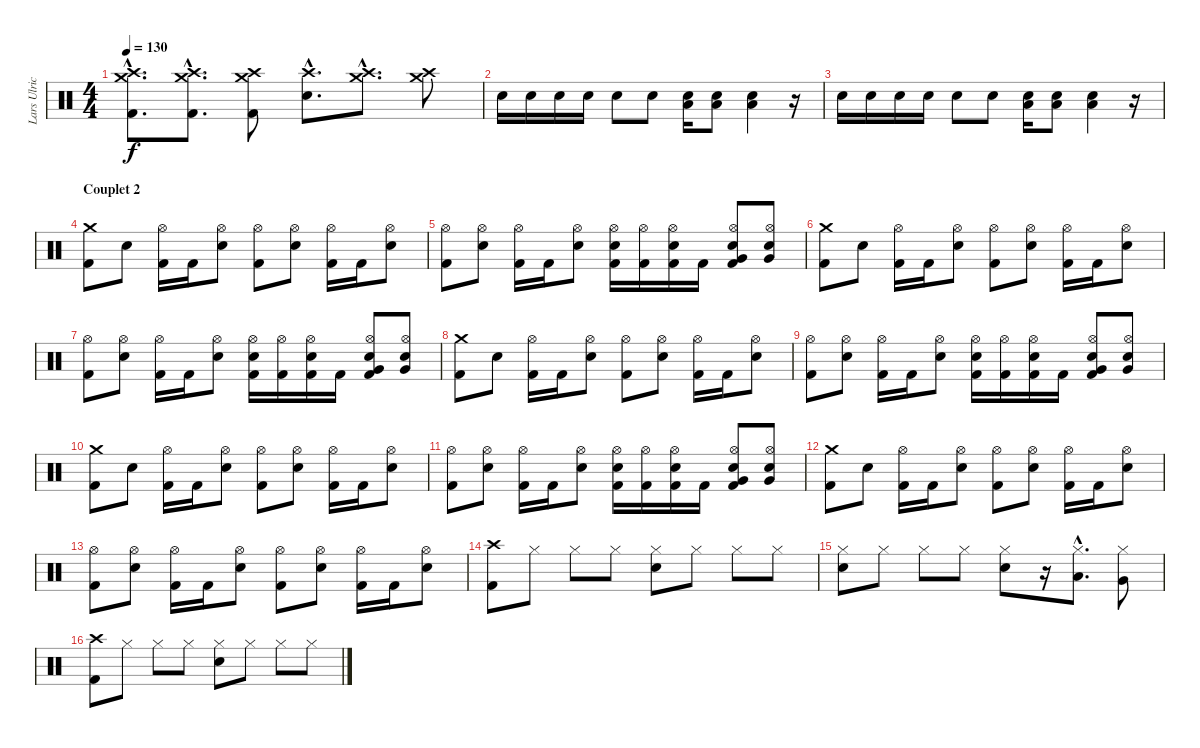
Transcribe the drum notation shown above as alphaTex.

\track ("Lars Ulrich" "Lars Ulric") {instrument percussion}
\staff {score}
\articulation defaults
\ts (4 4)
\tempo 130
\clef neutral
\ks c
("Crash medium (hit)"{hac} "Crash high (hit)"{hac} "Kick (hit) 2"{hac}).8{d dy f} ("Crash medium (hit)"{hac} "Crash high (hit)"{hac} "Kick (hit) 2"{hac}).8{d} ("Crash medium (hit)" "Crash high (hit)" "Kick (hit) 2").8 ("Crash high (hit)"{hac} "Electric Snare (hit)"{hac}).8{d} ("Crash medium (hit)"{hac} "Crash high (hit)"{hac}).8{d} ("Crash medium (hit)" "Crash high (hit)").8 |
"Electric Snare (hit)".16 "Electric Snare (hit)".16 "Electric Snare (hit)".16 "Electric Snare (hit)".16 "Electric Snare (hit)".8 "Electric Snare (hit)".8 ("Electric Snare (hit)" "Low Floor Tom (hit)").16 ("Electric Snare (hit)" "Low Floor Tom (hit)").8 ("Electric Snare (hit)" "Low Floor Tom (hit)").4 r.16 |
"Electric Snare (hit)".16 "Electric Snare (hit)".16 "Electric Snare (hit)".16 "Electric Snare (hit)".16 "Electric Snare (hit)".8 "Electric Snare (hit)".8 ("Electric Snare (hit)" "Low Floor Tom (hit)").16 ("Electric Snare (hit)" "Low Floor Tom (hit)").8 ("Electric Snare (hit)" "Low Floor Tom (hit)").4 r.16 |
\section ("" "Couplet 2")
("Crash medium (hit)" "Kick (hit) 2").8 "Electric Snare (hit)".8 ("Hi-Hat (open)" "Kick (hit) 2").16 "Kick (hit) 2".16 ("Hi-Hat (open)" "Electric Snare (hit)").8 ("Hi-Hat (open)" "Kick (hit) 2").8 ("Hi-Hat (open)" "Electric Snare (hit)").8 ("Hi-Hat (open)" "Kick (hit) 2").16 "Kick (hit) 2".16 ("Hi-Hat (open)" "Electric Snare (hit)").8 |
("Hi-Hat (open)" "Kick (hit) 2").8 ("Hi-Hat (open)" "Electric Snare (hit)").8 ("Hi-Hat (open)" "Kick (hit) 2").16 "Kick (hit) 2".16 ("Hi-Hat (open)" "Electric Snare (hit)").8 ("Hi-Hat (open)" "Electric Snare (hit)" "Kick (hit) 2").16 ("Hi-Hat (open)" "Kick (hit) 2").16 ("Hi-Hat (open)" "Electric Snare (hit)" "Kick (hit) 2").16 "Kick (hit) 2".16 ("Hi-Hat (open)" "Electric Snare (hit)" "Very Low Tom (hit)" "Kick (hit) 2").8 ("Hi-Hat (open)" "Electric Snare (hit)" "Very Low Tom (hit)").8 |
("Crash medium (hit)" "Kick (hit) 2").8 "Electric Snare (hit)".8 ("Hi-Hat (open)" "Kick (hit) 2").16 "Kick (hit) 2".16 ("Hi-Hat (open)" "Electric Snare (hit)").8 ("Hi-Hat (open)" "Kick (hit) 2").8 ("Hi-Hat (open)" "Electric Snare (hit)").8 ("Hi-Hat (open)" "Kick (hit) 2").16 "Kick (hit) 2".16 ("Hi-Hat (open)" "Electric Snare (hit)").8 |
("Hi-Hat (open)" "Kick (hit) 2").8 ("Hi-Hat (open)" "Electric Snare (hit)").8 ("Hi-Hat (open)" "Kick (hit) 2").16 "Kick (hit) 2".16 ("Hi-Hat (open)" "Electric Snare (hit)").8 ("Hi-Hat (open)" "Electric Snare (hit)" "Kick (hit) 2").16 ("Hi-Hat (open)" "Kick (hit) 2").16 ("Hi-Hat (open)" "Electric Snare (hit)" "Kick (hit) 2").16 "Kick (hit) 2".16 ("Hi-Hat (open)" "Electric Snare (hit)" "Very Low Tom (hit)" "Kick (hit) 2").8 ("Hi-Hat (open)" "Electric Snare (hit)" "Very Low Tom (hit)").8 |
("Crash medium (hit)" "Kick (hit) 2").8 "Electric Snare (hit)".8 ("Hi-Hat (open)" "Kick (hit) 2").16 "Kick (hit) 2".16 ("Hi-Hat (open)" "Electric Snare (hit)").8 ("Hi-Hat (open)" "Kick (hit) 2").8 ("Hi-Hat (open)" "Electric Snare (hit)").8 ("Hi-Hat (open)" "Kick (hit) 2").16 "Kick (hit) 2".16 ("Hi-Hat (open)" "Electric Snare (hit)").8 |
("Hi-Hat (open)" "Kick (hit) 2").8 ("Hi-Hat (open)" "Electric Snare (hit)").8 ("Hi-Hat (open)" "Kick (hit) 2").16 "Kick (hit) 2".16 ("Hi-Hat (open)" "Electric Snare (hit)").8 ("Hi-Hat (open)" "Electric Snare (hit)" "Kick (hit) 2").16 ("Hi-Hat (open)" "Kick (hit) 2").16 ("Hi-Hat (open)" "Electric Snare (hit)" "Kick (hit) 2").16 "Kick (hit) 2".16 ("Hi-Hat (open)" "Electric Snare (hit)" "Very Low Tom (hit)" "Kick (hit) 2").8 ("Hi-Hat (open)" "Electric Snare (hit)" "Very Low Tom (hit)").8 |
("Crash medium (hit)" "Kick (hit) 2").8 "Electric Snare (hit)".8 ("Hi-Hat (open)" "Kick (hit) 2").16 "Kick (hit) 2".16 ("Hi-Hat (open)" "Electric Snare (hit)").8 ("Hi-Hat (open)" "Kick (hit) 2").8 ("Hi-Hat (open)" "Electric Snare (hit)").8 ("Hi-Hat (open)" "Kick (hit) 2").16 "Kick (hit) 2".16 ("Hi-Hat (open)" "Electric Snare (hit)").8 |
("Hi-Hat (open)" "Kick (hit) 2").8 ("Hi-Hat (open)" "Electric Snare (hit)").8 ("Hi-Hat (open)" "Kick (hit) 2").16 "Kick (hit) 2".16 ("Hi-Hat (open)" "Electric Snare (hit)").8 ("Hi-Hat (open)" "Electric Snare (hit)" "Kick (hit) 2").16 ("Hi-Hat (open)" "Kick (hit) 2").16 ("Hi-Hat (open)" "Electric Snare (hit)" "Kick (hit) 2").16 "Kick (hit) 2".16 ("Hi-Hat (open)" "Electric Snare (hit)" "Very Low Tom (hit)" "Kick (hit) 2").8 ("Hi-Hat (open)" "Electric Snare (hit)" "Very Low Tom (hit)").8 |
("Crash medium (hit)" "Kick (hit) 2").8 "Electric Snare (hit)".8 ("Hi-Hat (open)" "Kick (hit) 2").16 "Kick (hit) 2".16 ("Hi-Hat (open)" "Electric Snare (hit)").8 ("Hi-Hat (open)" "Kick (hit) 2").8 ("Hi-Hat (open)" "Electric Snare (hit)").8 ("Hi-Hat (open)" "Kick (hit) 2").16 "Kick (hit) 2".16 ("Hi-Hat (open)" "Electric Snare (hit)").8 |
("Hi-Hat (open)" "Kick (hit) 2").8 ("Hi-Hat (open)" "Electric Snare (hit)").8 ("Hi-Hat (open)" "Kick (hit) 2").16 "Kick (hit) 2".16 ("Hi-Hat (open)" "Electric Snare (hit)").8 ("Hi-Hat (open)" "Kick (hit) 2").8 ("Hi-Hat (open)" "Electric Snare (hit)").8 ("Hi-Hat (open)" "Kick (hit) 2").16 "Kick (hit) 2".16 ("Hi-Hat (open)" "Electric Snare (hit)").8 |
("Crash high (hit)" "Kick (hit) 2").8 "Hi-Hat (closed)".8 "Hi-Hat (closed)".8 "Hi-Hat (closed)".8 ("Hi-Hat (closed)" "Electric Snare (hit)").8 "Hi-Hat (closed)".8 "Hi-Hat (closed)".8 "Hi-Hat (closed)".8 |
("Hi-Hat (closed)" "Electric Snare (hit)").8 "Hi-Hat (closed)".8 "Hi-Hat (closed)".8 "Hi-Hat (closed)".8 ("Hi-Hat (closed)" "Electric Snare (hit)").8 r.16 ("Hi-Hat (closed)"{hac} "Low Tom (hit)"{hac}).8{d} ("Hi-Hat (closed)" "Very Low Tom (hit)").8 |
("Crash high (hit)" "Kick (hit) 2").8 "Hi-Hat (closed)".8 "Hi-Hat (closed)".8 "Hi-Hat (closed)".8 ("Hi-Hat (closed)" "Electric Snare (hit)").8 "Hi-Hat (closed)".8 "Hi-Hat (closed)".8 "Hi-Hat (closed)".8
